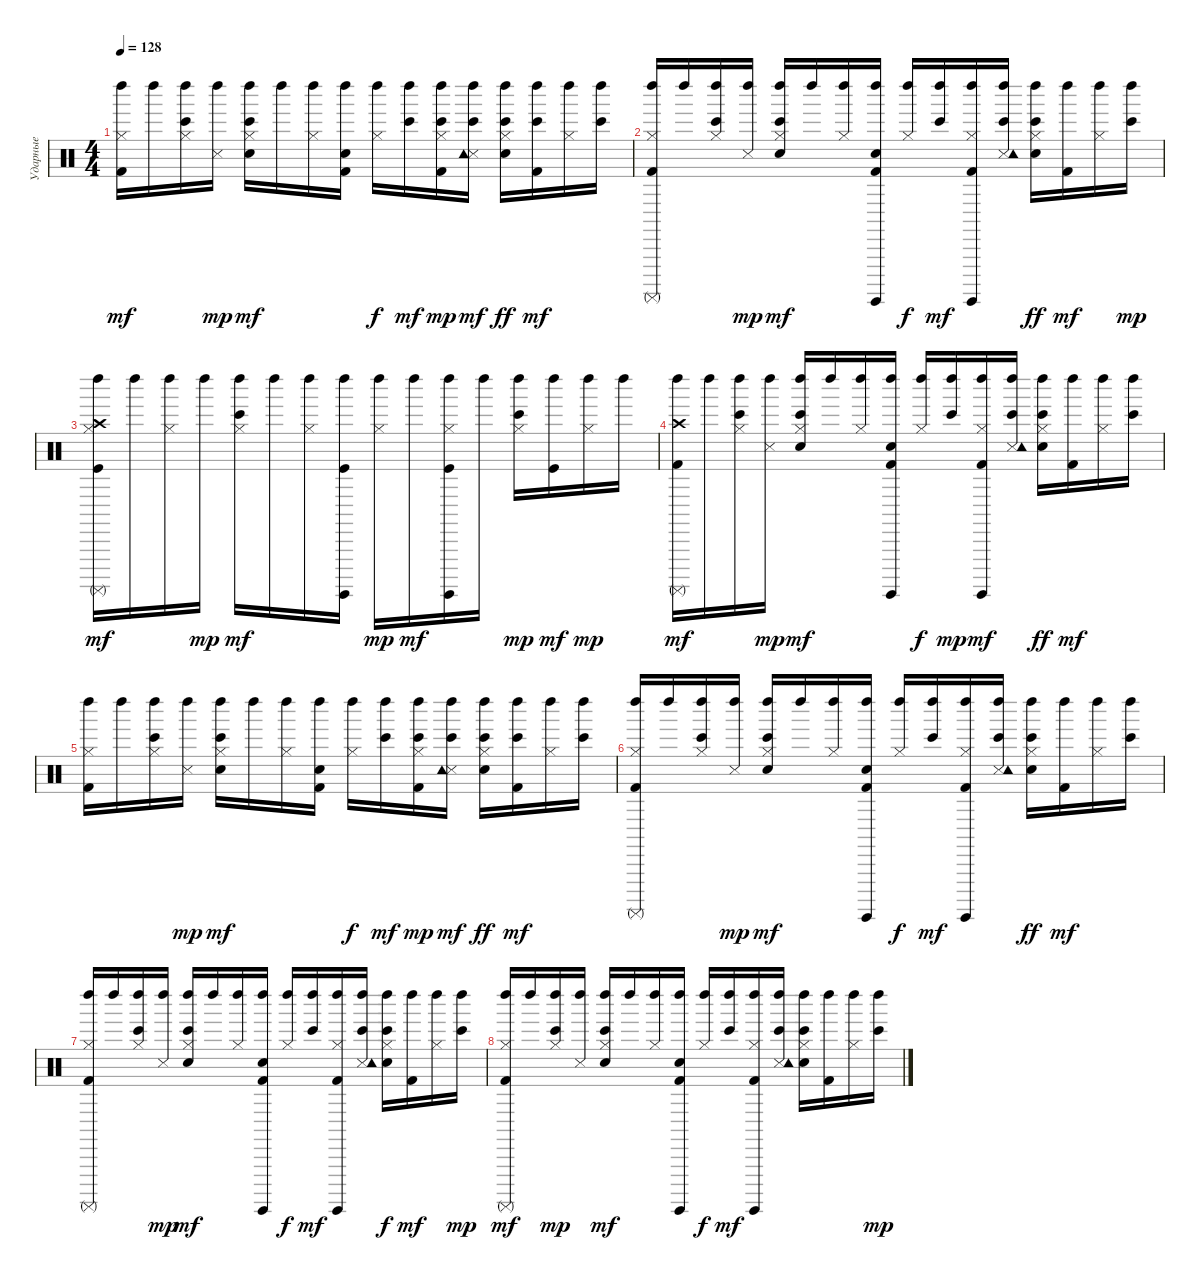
\track ("Ударные" "Ударные") {instrument percussion}
\staff {score}
\articulation defaults
\ts (4 4)
\tempo 128
\clef neutral
\ks c
("Kick (hit) 2" "Hi-Hat (closed)" "Left Maraca (hit)").16{dy mf} "Left Maraca (hit)".16 ("Bongo High (hit)" "Hi-Hat (closed)" "Left Maraca (hit)").16 ("Snare (side stick) 3" "Left Maraca (hit)").16{dy mp} ("Bongo High (hit)" "Electric Snare (hit)" "Hi-Hat (closed)" "Left Maraca (hit)").16{dy mf} "Left Maraca (hit)".16 ("Hi-Hat (closed)" "Left Maraca (hit)").16 ("Kick (hit) 2" "Electric Snare (hit)" "Left Maraca (hit)").16 ("Hi-Hat (closed)" "Left Maraca (hit)").16{dy f} ("Bongo High (hit)" "Left Maraca (hit)").16{dy mf} ("Bongo High (hit)" "Kick (hit) 2" "Hi-Hat (closed)" "Left Maraca (hit)").16{dy mp} ("Bongo High (hit)" "Snare (side stick) 3" "Tambourine (hit)" "Left Maraca (hit)").16{dy mf} ("Bongo High (hit)" "Electric Snare (hit)" "Hi-Hat (closed)" "Left Maraca (hit)").16{dy ff} ("Bongo High (hit)" "Kick (hit) 2" "Left Maraca (hit)").16{dy mf} ("Hi-Hat (closed)" "Left Maraca (hit)").16 ("Bongo High (hit)" "Left Maraca (hit)").16 |
("Kick (hit) 2" "Hi-Hat (closed)" "Left Maraca (hit)" "Surdo (mute)").16 "Left Maraca (hit)".16 ("Bongo High (hit)" "Hi-Hat (closed)" "Left Maraca (hit)").16 ("Snare (side stick) 3" "Left Maraca (hit)").16{dy mp} ("Bongo High (hit)" "Electric Snare (hit)" "Hi-Hat (closed)" "Left Maraca (hit)").16{dy mf} "Left Maraca (hit)".16 ("Hi-Hat (closed)" "Left Maraca (hit)").16 ("Kick (hit) 2" "Electric Snare (hit)" "Left Maraca (hit)" "Surdo (hit)").16 ("Hi-Hat (closed)" "Left Maraca (hit)").16{dy f} ("Bongo High (hit)" "Left Maraca (hit)").16{dy mf} ("Kick (hit) 2" "Hi-Hat (closed)" "Left Maraca (hit)" "Surdo (hit)").16 ("Bongo High (hit)" "Snare (side stick) 3" "Tambourine (hit)" "Left Maraca (hit)").16 ("Bongo High (hit)" "Electric Snare (hit)" "Hi-Hat (closed)" "Left Maraca (hit)").16{dy ff} ("Kick (hit) 2" "Left Maraca (hit)").16{dy mf} ("Hi-Hat (closed)" "Left Maraca (hit)").16 ("Bongo High (hit)" "Left Maraca (hit)").16{dy mp} |
("Kick (hit)" "Hi-Hat (closed)" "Crash high (hit)" "Left Maraca (hit)" "Surdo (mute)").16{dy mf} "Left Maraca (hit)".16 ("Hi-Hat (closed)" "Left Maraca (hit)").16 "Left Maraca (hit)".16{dy mp} ("Bongo High (hit)" "Hi-Hat (closed)" "Left Maraca (hit)").16{dy mf} "Left Maraca (hit)".16 ("Hi-Hat (closed)" "Left Maraca (hit)").16 ("Kick (hit)" "Left Maraca (hit)" "Surdo (hit)").16 ("Hi-Hat (closed)" "Left Maraca (hit)").16{dy mp} "Left Maraca (hit)".16{dy mf} ("Kick (hit)" "Hi-Hat (closed)" "Left Maraca (hit)" "Surdo (hit)").16 "Left Maraca (hit)".16 ("Bongo High (hit)" "Hi-Hat (closed)" "Left Maraca (hit)").16{dy mp} ("Kick (hit)" "Left Maraca (hit)").16{dy mf} ("Hi-Hat (closed)" "Left Maraca (hit)").16{dy mp} "Left Maraca (hit)".16 |
("Kick (hit) 2" "Crash high (hit)" "Left Maraca (hit)" "Surdo (mute)").16{dy mf} "Left Maraca (hit)".16 ("Bongo High (hit)" "Hi-Hat (closed)" "Left Maraca (hit)").16 ("Snare (side stick) 3" "Left Maraca (hit)").16{dy mp} ("Bongo High (hit)" "Electric Snare (hit)" "Hi-Hat (closed)" "Left Maraca (hit)").16{dy mf} "Left Maraca (hit)".16 ("Hi-Hat (closed)" "Left Maraca (hit)").16 ("Kick (hit) 2" "Electric Snare (hit)" "Left Maraca (hit)" "Surdo (hit)").16 ("Hi-Hat (closed)" "Left Maraca (hit)").16{dy f} ("Bongo High (hit)" "Left Maraca (hit)").16{dy mp} ("Kick (hit) 2" "Hi-Hat (closed)" "Left Maraca (hit)" "Surdo (hit)").16{dy mf} ("Bongo High (hit)" "Snare (side stick) 3" "Tambourine (hit)" "Left Maraca (hit)").16 ("Bongo High (hit)" "Electric Snare (hit)" "Hi-Hat (closed)" "Left Maraca (hit)").16{dy ff} ("Kick (hit) 2" "Left Maraca (hit)").16{dy mf} ("Hi-Hat (closed)" "Left Maraca (hit)").16 ("Bongo High (hit)" "Left Maraca (hit)").16 |
("Kick (hit) 2" "Hi-Hat (closed)" "Left Maraca (hit)").16 "Left Maraca (hit)".16 ("Bongo High (hit)" "Hi-Hat (closed)" "Left Maraca (hit)").16 ("Snare (side stick) 3" "Left Maraca (hit)").16{dy mp} ("Bongo High (hit)" "Electric Snare (hit)" "Hi-Hat (closed)" "Left Maraca (hit)").16{dy mf} "Left Maraca (hit)".16 ("Hi-Hat (closed)" "Left Maraca (hit)").16 ("Kick (hit) 2" "Electric Snare (hit)" "Left Maraca (hit)").16 ("Hi-Hat (closed)" "Left Maraca (hit)").16{dy f} ("Bongo High (hit)" "Left Maraca (hit)").16{dy mf} ("Bongo High (hit)" "Kick (hit) 2" "Hi-Hat (closed)" "Left Maraca (hit)").16{dy mp} ("Bongo High (hit)" "Snare (side stick) 3" "Tambourine (hit)" "Left Maraca (hit)").16{dy mf} ("Bongo High (hit)" "Electric Snare (hit)" "Hi-Hat (closed)" "Left Maraca (hit)").16{dy ff} ("Bongo High (hit)" "Kick (hit) 2" "Left Maraca (hit)").16{dy mf} ("Hi-Hat (closed)" "Left Maraca (hit)").16 ("Bongo High (hit)" "Left Maraca (hit)").16 |
("Kick (hit) 2" "Hi-Hat (closed)" "Left Maraca (hit)" "Surdo (mute)").16 "Left Maraca (hit)".16 ("Bongo High (hit)" "Hi-Hat (closed)" "Left Maraca (hit)").16 ("Snare (side stick) 3" "Left Maraca (hit)").16{dy mp} ("Bongo High (hit)" "Electric Snare (hit)" "Hi-Hat (closed)" "Left Maraca (hit)").16{dy mf} "Left Maraca (hit)".16 ("Hi-Hat (closed)" "Left Maraca (hit)").16 ("Kick (hit) 2" "Electric Snare (hit)" "Left Maraca (hit)" "Surdo (hit)").16 ("Hi-Hat (closed)" "Left Maraca (hit)").16{dy f} ("Bongo High (hit)" "Left Maraca (hit)").16{dy mf} ("Kick (hit) 2" "Hi-Hat (closed)" "Left Maraca (hit)" "Surdo (hit)").16 ("Bongo High (hit)" "Snare (side stick) 3" "Tambourine (hit)" "Left Maraca (hit)").16 ("Bongo High (hit)" "Electric Snare (hit)" "Hi-Hat (closed)" "Left Maraca (hit)").16{dy ff} ("Kick (hit) 2" "Left Maraca (hit)").16{dy mf} ("Hi-Hat (closed)" "Left Maraca (hit)").16 ("Bongo High (hit)" "Left Maraca (hit)").16 |
("Kick (hit) 2" "Hi-Hat (closed)" "Left Maraca (hit)" "Surdo (mute)").16 "Left Maraca (hit)".16 ("Bongo High (hit)" "Hi-Hat (closed)" "Left Maraca (hit)").16 ("Snare (side stick) 3" "Left Maraca (hit)").16{dy mp} ("Bongo High (hit)" "Electric Snare (hit)" "Hi-Hat (closed)" "Left Maraca (hit)").16{dy mf} "Left Maraca (hit)".16 ("Hi-Hat (closed)" "Left Maraca (hit)").16 ("Kick (hit) 2" "Electric Snare (hit)" "Left Maraca (hit)" "Surdo (hit)").16 ("Hi-Hat (closed)" "Left Maraca (hit)").16{dy f} ("Bongo High (hit)" "Left Maraca (hit)").16{dy mf} ("Kick (hit) 2" "Hi-Hat (closed)" "Left Maraca (hit)" "Surdo (hit)").16 ("Bongo High (hit)" "Snare (side stick) 3" "Tambourine (hit)" "Left Maraca (hit)").16 ("Bongo High (hit)" "Electric Snare (hit)" "Hi-Hat (closed)" "Left Maraca (hit)").16{dy f} ("Kick (hit) 2" "Left Maraca (hit)").16{dy mf} ("Hi-Hat (closed)" "Left Maraca (hit)").16 ("Bongo High (hit)" "Left Maraca (hit)").16{dy mp} |
("Kick (hit) 2" "Hi-Hat (closed)" "Left Maraca (hit)" "Surdo (mute)").16{dy mf} "Left Maraca (hit)".16 ("Bongo High (hit)" "Hi-Hat (closed)" "Left Maraca (hit)").16{dy mp} ("Snare (side stick) 3" "Left Maraca (hit)").16 ("Bongo High (hit)" "Electric Snare (hit)" "Hi-Hat (closed)" "Left Maraca (hit)").16{dy mf} "Left Maraca (hit)".16 ("Hi-Hat (closed)" "Left Maraca (hit)").16 ("Kick (hit) 2" "Electric Snare (hit)" "Left Maraca (hit)" "Surdo (hit)").16 ("Hi-Hat (closed)" "Left Maraca (hit)").16{dy f} ("Bongo High (hit)" "Left Maraca (hit)").16{dy mf} ("Kick (hit) 2" "Hi-Hat (closed)" "Left Maraca (hit)" "Surdo (hit)").16 ("Bongo High (hit)" "Snare (side stick) 3" "Tambourine (hit)" "Left Maraca (hit)").16 ("Bongo High (hit)" "Electric Snare (hit)" "Hi-Hat (closed)" "Left Maraca (hit)").16 ("Kick (hit) 2" "Left Maraca (hit)").16 ("Hi-Hat (closed)" "Left Maraca (hit)").16 ("Bongo High (hit)" "Left Maraca (hit)").16{dy mp}
